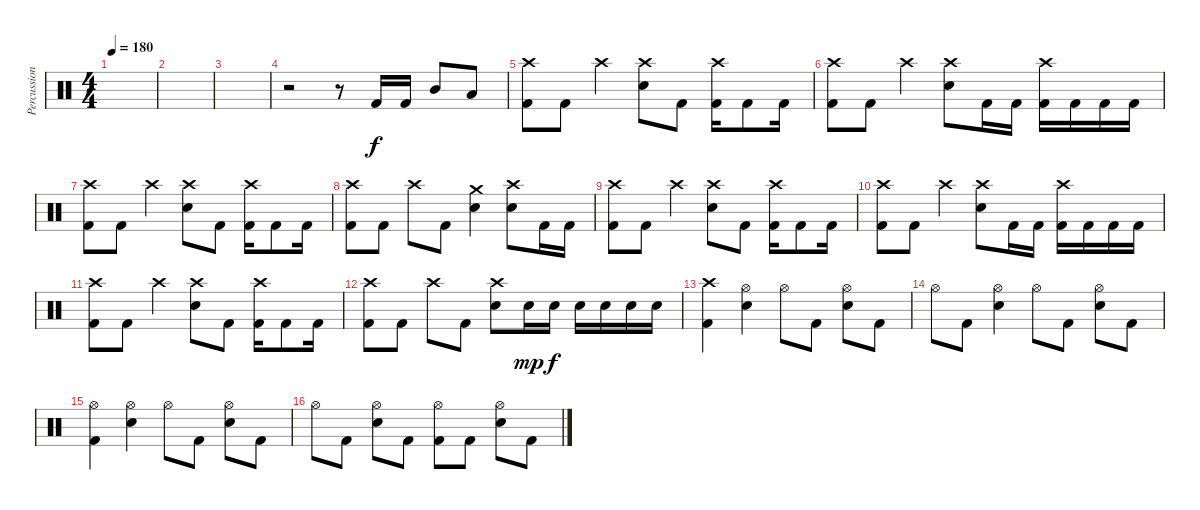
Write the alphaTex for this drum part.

\track ("Percussion" "Percussion") {instrument percussion}
\staff {score}
\articulation defaults
\ts (4 4)
\tempo 180
\clef neutral
\ks c
|
|
|
r.2 r.8 "Kick (hit) 2".16 "Kick (hit) 2".16 "Mid Tom (hit)".8 "Low Tom (hit)".8 |
("Crash high (hit)" "Kick (hit) 2").8 "Kick (hit) 2".8 "Crash high (hit)".4 ("Crash high (hit)" "Electric Snare (hit)").8 "Kick (hit) 2".8 ("Crash high (hit)" "Kick (hit) 2").16 "Kick (hit) 2".8 "Kick (hit) 2".16 |
("Crash high (hit)" "Kick (hit) 2").8 "Kick (hit) 2".8 "Crash high (hit)".4 ("Crash high (hit)" "Electric Snare (hit)").8 "Kick (hit) 2".16 "Kick (hit) 2".16 ("Crash high (hit)" "Kick (hit) 2").16 "Kick (hit) 2".16 "Kick (hit) 2".16 "Kick (hit) 2".16 |
("Crash high (hit)" "Kick (hit) 2").8 "Kick (hit) 2".8 "Crash high (hit)".4 ("Crash high (hit)" "Electric Snare (hit)").8 "Kick (hit) 2".8 ("Crash high (hit)" "Kick (hit) 2").16 "Kick (hit) 2".8 "Kick (hit) 2".16 |
("Crash high (hit)" "Kick (hit) 2").8 "Kick (hit) 2".8 "Crash high (hit)".8 "Kick (hit) 2".8 ("Crash medium (hit)" "Electric Snare (hit)").4 ("Crash high (hit)" "Electric Snare (hit)").8 "Kick (hit) 2".16 "Kick (hit) 2".16 |
("Crash high (hit)" "Kick (hit) 2").8 "Kick (hit) 2".8 "Crash high (hit)".4 ("Crash high (hit)" "Electric Snare (hit)").8 "Kick (hit) 2".8 ("Crash high (hit)" "Kick (hit) 2").16 "Kick (hit) 2".8 "Kick (hit) 2".16 |
("Crash high (hit)" "Kick (hit) 2").8 "Kick (hit) 2".8 "Crash high (hit)".4 ("Crash high (hit)" "Electric Snare (hit)").8 "Kick (hit) 2".16 "Kick (hit) 2".16 ("Crash high (hit)" "Kick (hit) 2").16 "Kick (hit) 2".16 "Kick (hit) 2".16 "Kick (hit) 2".16 |
("Crash high (hit)" "Kick (hit) 2").8 "Kick (hit) 2".8 "Crash high (hit)".4 ("Crash high (hit)" "Electric Snare (hit)").8 "Kick (hit) 2".8 ("Crash high (hit)" "Kick (hit) 2").16 "Kick (hit) 2".8 "Kick (hit) 2".16 |
("Crash high (hit)" "Kick (hit) 2").8 "Kick (hit) 2".8 "Crash high (hit)".8 "Kick (hit) 2".8 ("Crash high (hit)" "Electric Snare (hit)").8 "Electric Snare (hit)".16{dy mp} "Electric Snare (hit)".16{dy f} "Electric Snare (hit)".16 "Electric Snare (hit)".16 "Electric Snare (hit)".16 "Electric Snare (hit)".16 |
("Crash high (hit)" "Kick (hit) 2").4 ("Hi-Hat (open)" "Electric Snare (hit)").4 "Hi-Hat (open)".8 "Kick (hit) 2".8 ("Hi-Hat (open)" "Electric Snare (hit)").8 "Kick (hit) 2".8 |
"Hi-Hat (open)".8 "Kick (hit) 2".8 ("Hi-Hat (open)" "Electric Snare (hit)").4 "Hi-Hat (open)".8 "Kick (hit) 2".8 ("Hi-Hat (open)" "Electric Snare (hit)").8 "Kick (hit) 2".8 |
("Hi-Hat (open)" "Kick (hit) 2").4 ("Hi-Hat (open)" "Electric Snare (hit)").4 "Hi-Hat (open)".8 "Kick (hit) 2".8 ("Hi-Hat (open)" "Electric Snare (hit)").8 "Kick (hit) 2".8 |
"Hi-Hat (open)".8 "Kick (hit) 2".8 ("Hi-Hat (open)" "Electric Snare (hit)").8 "Kick (hit) 2".8 ("Hi-Hat (open)" "Kick (hit) 2").8 "Kick (hit) 2".8 ("Hi-Hat (open)" "Electric Snare (hit)").8 "Kick (hit) 2".8
